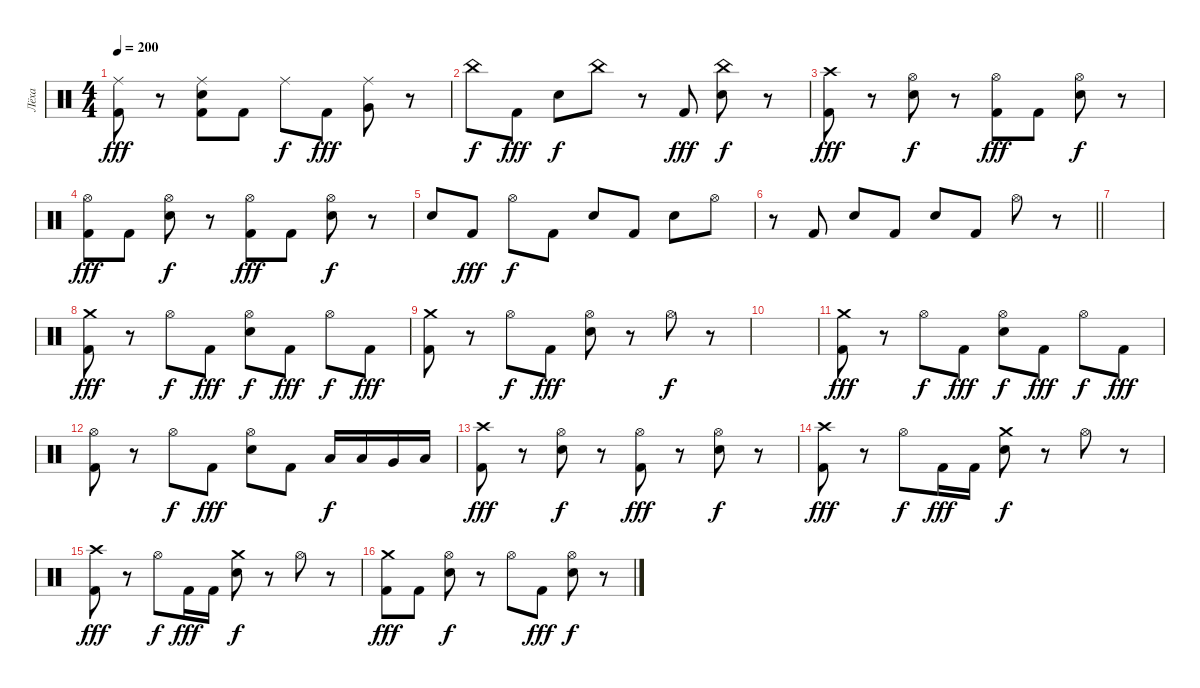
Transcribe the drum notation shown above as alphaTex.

\track ("Лёха" "Лёха") {instrument percussion}
\staff {score}
\articulation defaults
\ts (4 4)
\tempo 200
\clef neutral
\ks c
("Ride (middle)" "Kick (hit) 2").8{dy fff} r.8 ("Ride (middle)" "Electric Snare (hit)" "Kick (hit) 2").8 "Kick (hit) 2".8 "Ride (middle)".8{dy f} "Kick (hit) 2".8{dy fff} ("Ride (middle)" "Very Low Tom (hit)").8 r.8 |
"China (hit)".8{dy f} "Kick (hit) 2".8{dy fff} "Electric Snare (hit)".8{dy f} "China (hit)".8 r.8 "Kick (hit) 2".8{dy fff} ("China (hit)" "Electric Snare (hit)").8{dy f} r.8 |
("Crash high (hit)" "Kick (hit) 2").8{dy fff} r.8 ("Hi-Hat (open)" "Electric Snare (hit)").8{dy f} r.8 ("Hi-Hat (open)" "Kick (hit) 2").8{dy fff} "Kick (hit) 2".8 ("Hi-Hat (open)" "Electric Snare (hit)").8{dy f} r.8 |
("Hi-Hat (open)" "Kick (hit) 2").8{dy fff} "Kick (hit) 2".8 ("Hi-Hat (open)" "Electric Snare (hit)").8{dy f} r.8 ("Hi-Hat (open)" "Kick (hit) 2").8{dy fff} "Kick (hit) 2".8 ("Hi-Hat (open)" "Electric Snare (hit)").8{dy f} r.8 |
"Electric Snare (hit)".8 "Kick (hit) 2".8{dy fff} "Hi-Hat (open)".8{dy f} "Kick (hit) 2".8 "Electric Snare (hit)".8 "Kick (hit) 2".8 "Electric Snare (hit)".8 "Hi-Hat (open)".8 |
\barLineRight lightlight
r.8 "Kick (hit) 2".8 "Electric Snare (hit)".8 "Kick (hit) 2".8 "Electric Snare (hit)".8 "Kick (hit) 2".8 "Hi-Hat (open)".8 r.8 |
\section ("" "")
|
("Crash medium (hit)" "Kick (hit) 2").8{dy fff volume 12} r.8 "Hi-Hat (open)".8{dy f} "Kick (hit) 2".8{dy fff} ("Hi-Hat (open)" "Electric Snare (hit)").8{dy f} "Kick (hit) 2".8{dy fff} "Hi-Hat (open)".8{dy f} "Kick (hit) 2".8{dy fff} |
("Crash medium (hit)" "Kick (hit) 2").8 r.8 "Hi-Hat (open)".8{dy f} "Kick (hit) 2".8{dy fff} ("Hi-Hat (open)" "Electric Snare (hit)").8 r.8 "Hi-Hat (open)".8{dy f} r.8 |
|
("Crash medium (hit)" "Kick (hit) 2").8{dy fff} r.8 "Hi-Hat (open)".8{dy f} "Kick (hit) 2".8{dy fff} ("Hi-Hat (open)" "Electric Snare (hit)").8{dy f} "Kick (hit) 2".8{dy fff} "Hi-Hat (open)".8{dy f} "Kick (hit) 2".8{dy fff} |
("Hi-Hat (open)" "Kick (hit) 2").8 r.8 "Hi-Hat (open)".8{dy f} "Kick (hit) 2".8{dy fff} ("Hi-Hat (open)" "Electric Snare (hit)").8 "Kick (hit) 2".8 "Low Tom (hit)".16{dy f} "Low Tom (hit)".16 "Very Low Tom (hit)".16 "Low Floor Tom (hit)".16 |
("Crash high (hit)" "Kick (hit) 2").8{dy fff} r.8 ("Hi-Hat (open)" "Electric Snare (hit)").8{dy f} r.8 ("Hi-Hat (open)" "Kick (hit) 2").8{dy fff} r.8 ("Hi-Hat (open)" "Electric Snare (hit)").8{dy f} r.8 |
("Crash high (hit)" "Kick (hit) 2").8{dy fff} r.8 "Hi-Hat (open)".8{dy f} "Kick (hit) 2".16{dy fff} "Kick (hit) 2".16 ("Crash medium (hit)" "Electric Snare (hit)").8{dy f} r.8 "Hi-Hat (open)".8 r.8 |
("Crash high (hit)" "Kick (hit) 2").8{dy fff} r.8 "Hi-Hat (open)".8{dy f} "Kick (hit) 2".16{dy fff} "Kick (hit) 2".16 ("Crash medium (hit)" "Electric Snare (hit)").8{dy f} r.8 "Hi-Hat (open)".8 r.8 |
("Crash medium (hit)" "Kick (hit) 2").8{dy fff} "Kick (hit) 2".8 ("Hi-Hat (open)" "Electric Snare (hit)").8{dy f} r.8 "Hi-Hat (open)".8 "Kick (hit) 2".8{dy fff} ("Hi-Hat (open)" "Electric Snare (hit)").8{dy f} r.8
